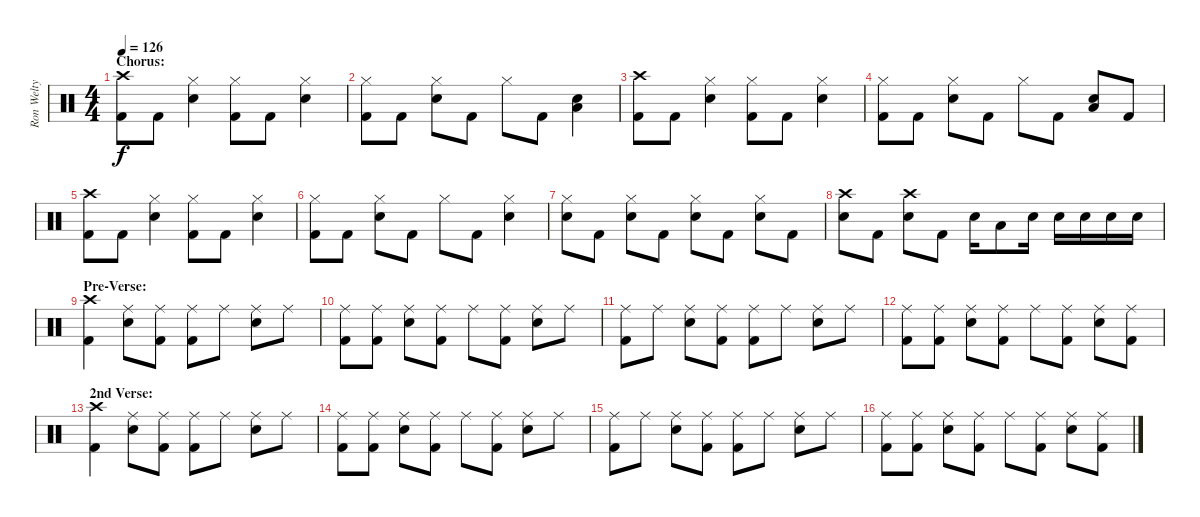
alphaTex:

\track ("Ron Welty - Drums" "Ron Welty ") {instrument percussion}
\staff {score}
\articulation defaults
\ts (4 4)
\section ("" "Chorus:")
\tempo 126
\clef neutral
\ks c
("Crash high (hit)" "Kick (hit) 2").8{dy f} "Kick (hit) 2".8 ("Hi-Hat (closed)" "Snare (hit) 2").4 ("Hi-Hat (closed)" "Kick (hit) 2").8 "Kick (hit) 2".8 ("Hi-Hat (closed)" "Snare (hit) 2").4 |
("Hi-Hat (closed)" "Kick (hit) 2").8 "Kick (hit) 2".8 ("Hi-Hat (closed)" "Snare (hit) 2").8 "Kick (hit) 2".8 "Hi-Hat (closed)".8 "Kick (hit) 2".8 ("Snare (hit) 2" "Low Floor Tom (hit)").4 |
("Crash high (hit)" "Kick (hit) 2").8 "Kick (hit) 2".8 ("Hi-Hat (closed)" "Snare (hit) 2").4 ("Hi-Hat (closed)" "Kick (hit) 2").8 "Kick (hit) 2".8 ("Hi-Hat (closed)" "Snare (hit) 2").4 |
("Hi-Hat (closed)" "Kick (hit) 2").8 "Kick (hit) 2".8 ("Hi-Hat (closed)" "Snare (hit) 2").8 "Kick (hit) 2".8 "Hi-Hat (closed)".8 "Kick (hit) 2".8 ("Snare (hit) 2" "Low Floor Tom (hit)").8 "Kick (hit) 2".8 |
("Crash high (hit)" "Kick (hit) 2").8 "Kick (hit) 2".8 ("Hi-Hat (closed)" "Snare (hit) 2").4 ("Hi-Hat (closed)" "Kick (hit) 2").8 "Kick (hit) 2".8 ("Hi-Hat (closed)" "Snare (hit) 2").4 |
("Hi-Hat (closed)" "Kick (hit) 2").8 "Kick (hit) 2".8 ("Hi-Hat (closed)" "Snare (hit) 2").8 "Kick (hit) 2".8 "Hi-Hat (closed)".8 "Kick (hit) 2".8 ("Hi-Hat (closed)" "Snare (hit) 2").4 |
("Hi-Hat (closed)" "Snare (hit) 2").8 "Kick (hit) 2".8 ("Hi-Hat (closed)" "Snare (hit) 2").8 "Kick (hit) 2".8 ("Hi-Hat (closed)" "Snare (hit) 2").8 "Kick (hit) 2".8 ("Hi-Hat (closed)" "Snare (hit) 2").8 "Kick (hit) 2".8 |
("Crash high (hit)" "Snare (hit) 2").8 "Kick (hit) 2".8 ("Crash high (hit)" "Snare (hit) 2").8 "Kick (hit) 2".8 "Snare (hit) 2".16 "Low Floor Tom (hit)".8 "Snare (hit) 2".16 "Snare (hit) 2".16 "Snare (hit) 2".16 "Snare (hit) 2".16 "Snare (hit) 2".16 |
\section ("" "Pre-Verse:")
("Crash high (hit)" "Kick (hit) 2").4 ("Ride (middle)" "Snare (hit) 2").8 ("Ride (middle)" "Kick (hit) 2").8 ("Ride (middle)" "Kick (hit) 2").8 "Ride (middle)".8 ("Ride (middle)" "Snare (hit) 2").8 "Ride (middle)".8 |
("Ride (middle)" "Kick (hit) 2").8 ("Ride (middle)" "Kick (hit) 2").8 ("Ride (middle)" "Snare (hit) 2").8 ("Ride (middle)" "Kick (hit) 2").8 "Ride (middle)".8 ("Ride (middle)" "Kick (hit) 2").8 ("Ride (middle)" "Snare (hit) 2").8 "Ride (middle)".8 |
("Ride (middle)" "Kick (hit) 2").8 "Ride (middle)".8 ("Ride (middle)" "Snare (hit) 2").8 ("Ride (middle)" "Kick (hit) 2").8 ("Ride (middle)" "Kick (hit) 2").8 "Ride (middle)".8 ("Ride (middle)" "Snare (hit) 2").8 "Ride (middle)".8 |
("Ride (middle)" "Kick (hit) 2").8 ("Ride (middle)" "Kick (hit) 2").8 ("Ride (middle)" "Snare (hit) 2").8 ("Ride (middle)" "Kick (hit) 2").8 "Ride (middle)".8 ("Ride (middle)" "Kick (hit) 2").8 ("Ride (middle)" "Snare (hit) 2").8 ("Ride (middle)" "Kick (hit) 2").8 |
\section ("" "2nd Verse:")
("Crash high (hit)" "Kick (hit) 2").4 ("Ride (middle)" "Snare (hit) 2").8 ("Ride (middle)" "Kick (hit) 2").8 ("Ride (middle)" "Kick (hit) 2").8 "Ride (middle)".8 ("Ride (middle)" "Snare (hit) 2").8 "Ride (middle)".8 |
("Ride (middle)" "Kick (hit) 2").8 ("Ride (middle)" "Kick (hit) 2").8 ("Ride (middle)" "Snare (hit) 2").8 ("Ride (middle)" "Kick (hit) 2").8 "Ride (middle)".8 ("Ride (middle)" "Kick (hit) 2").8 ("Ride (middle)" "Snare (hit) 2").8 "Ride (middle)".8 |
("Ride (middle)" "Kick (hit) 2").8 "Ride (middle)".8 ("Ride (middle)" "Snare (hit) 2").8 ("Ride (middle)" "Kick (hit) 2").8 ("Ride (middle)" "Kick (hit) 2").8 "Ride (middle)".8 ("Ride (middle)" "Snare (hit) 2").8 "Ride (middle)".8 |
("Ride (middle)" "Kick (hit) 2").8 ("Ride (middle)" "Kick (hit) 2").8 ("Ride (middle)" "Snare (hit) 2").8 ("Ride (middle)" "Kick (hit) 2").8 "Ride (middle)".8 ("Ride (middle)" "Kick (hit) 2").8 ("Ride (middle)" "Snare (hit) 2").8 ("Ride (middle)" "Kick (hit) 2").8
